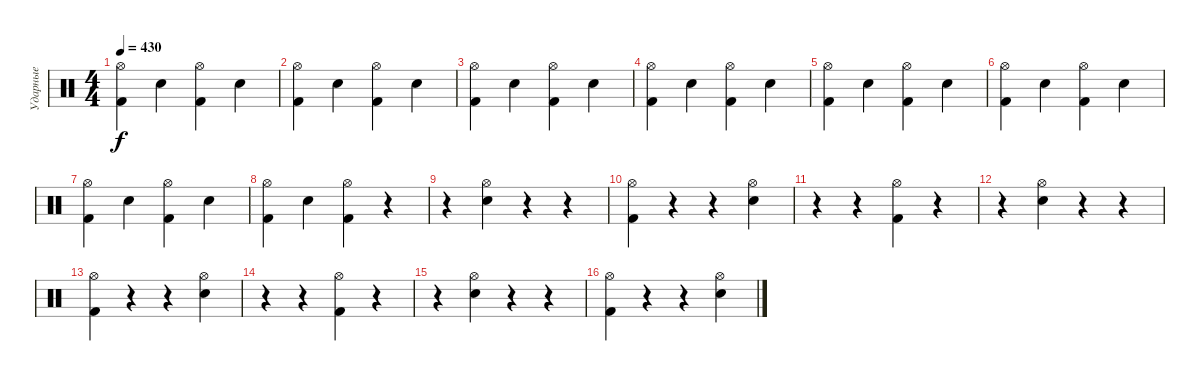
\track ("Ударные" "Ударные") {instrument percussion}
\staff {score}
\articulation defaults
\ts (4 4)
\tempo 430
\clef neutral
\ks c
("Kick (hit) 2" "Hi-Hat (open)").4{dy f} "Electric Snare (hit)".4 ("Kick (hit) 2" "Hi-Hat (open)").4 "Electric Snare (hit)".4 |
("Kick (hit) 2" "Hi-Hat (open)").4 "Electric Snare (hit)".4 ("Kick (hit) 2" "Hi-Hat (open)").4 "Electric Snare (hit)".4 |
("Kick (hit) 2" "Hi-Hat (open)").4 "Electric Snare (hit)".4 ("Kick (hit) 2" "Hi-Hat (open)").4 "Electric Snare (hit)".4 |
("Kick (hit) 2" "Hi-Hat (open)").4 "Electric Snare (hit)".4 ("Kick (hit) 2" "Hi-Hat (open)").4 "Electric Snare (hit)".4 |
("Kick (hit) 2" "Hi-Hat (open)").4 "Electric Snare (hit)".4 ("Kick (hit) 2" "Hi-Hat (open)").4 "Electric Snare (hit)".4 |
("Kick (hit) 2" "Hi-Hat (open)").4 "Electric Snare (hit)".4 ("Kick (hit) 2" "Hi-Hat (open)").4 "Electric Snare (hit)".4 |
("Kick (hit) 2" "Hi-Hat (open)").4 "Electric Snare (hit)".4 ("Kick (hit) 2" "Hi-Hat (open)").4 "Electric Snare (hit)".4 |
("Kick (hit) 2" "Hi-Hat (open)").4 "Electric Snare (hit)".4 ("Kick (hit) 2" "Hi-Hat (open)").4 r.4 |
r.4 ("Electric Snare (hit)" "Hi-Hat (open)").4 r.4 r.4 |
("Kick (hit) 2" "Hi-Hat (open)").4 r.4 r.4 ("Electric Snare (hit)" "Hi-Hat (open)").4 |
r.4 r.4 ("Kick (hit) 2" "Hi-Hat (open)").4 r.4 |
r.4 ("Electric Snare (hit)" "Hi-Hat (open)").4 r.4 r.4 |
("Kick (hit) 2" "Hi-Hat (open)").4 r.4 r.4 ("Electric Snare (hit)" "Hi-Hat (open)").4 |
r.4 r.4 ("Kick (hit) 2" "Hi-Hat (open)").4 r.4 |
r.4 ("Electric Snare (hit)" "Hi-Hat (open)").4 r.4 r.4 |
("Kick (hit) 2" "Hi-Hat (open)").4 r.4 r.4 ("Electric Snare (hit)" "Hi-Hat (open)").4
